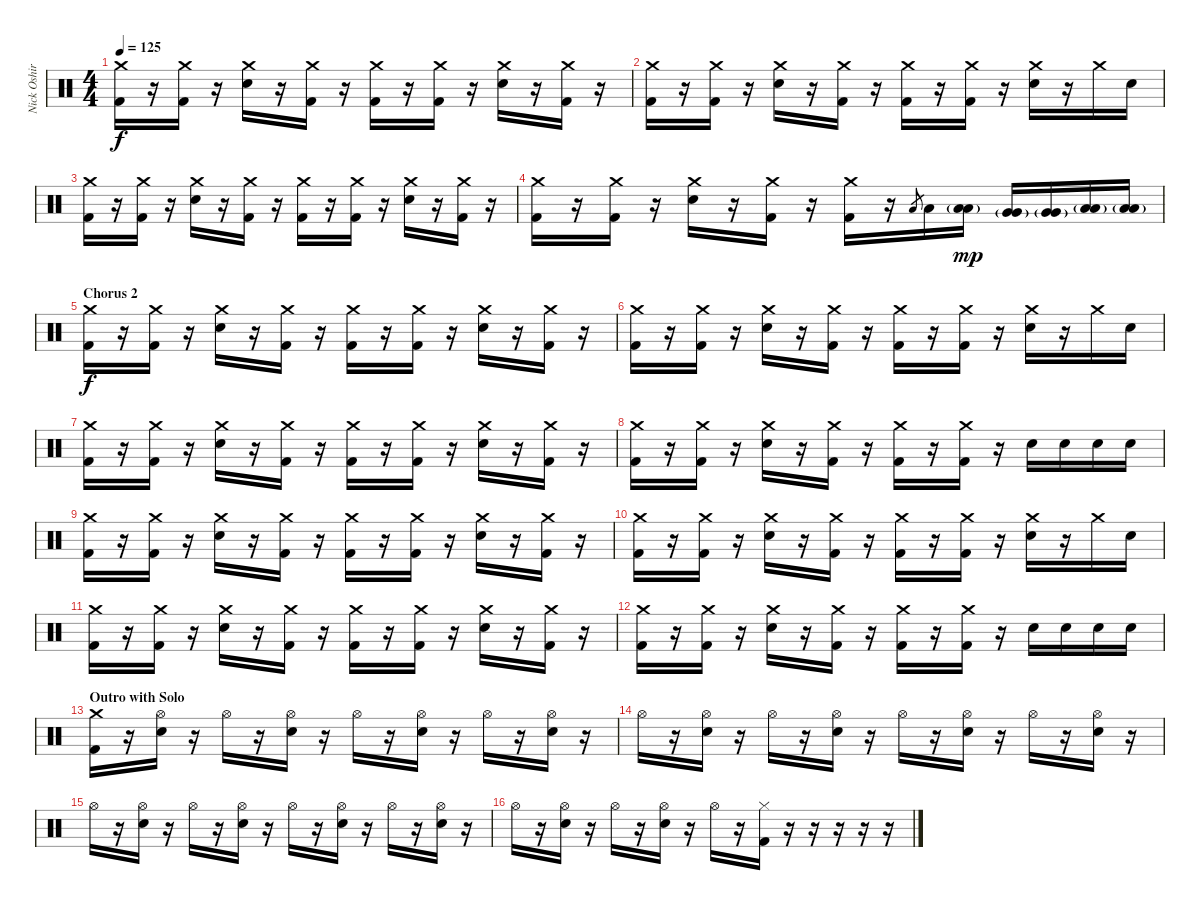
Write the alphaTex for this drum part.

\track ("Nick Oshiro - Drums" "Nick Oshir") {instrument percussion}
\staff {score}
\articulation defaults
\ts (4 4)
\tempo 125
\clef neutral
\ks c
("Crash medium (hit)" "Kick (hit) 2").16{dy f} r.16 ("Crash medium (hit)" "Kick (hit) 2").16 r.16 ("Crash medium (hit)" "Snare (hit) 2").16 r.16 ("Crash medium (hit)" "Kick (hit) 2").16 r.16 ("Crash medium (hit)" "Kick (hit) 2").16 r.16 ("Crash medium (hit)" "Kick (hit) 2").16 r.16 ("Crash medium (hit)" "Snare (hit) 2").16 r.16 ("Crash medium (hit)" "Kick (hit) 2").16 r.16 |
("Crash medium (hit)" "Kick (hit) 2").16 r.16 ("Crash medium (hit)" "Kick (hit) 2").16 r.16 ("Crash medium (hit)" "Snare (hit) 2").16 r.16 ("Crash medium (hit)" "Kick (hit) 2").16 r.16 ("Crash medium (hit)" "Kick (hit) 2").16 r.16 ("Crash medium (hit)" "Kick (hit) 2").16 r.16 ("Crash medium (hit)" "Snare (hit) 2").16 r.16 "Crash medium (hit)".16 "Snare (hit) 2".16 |
("Crash medium (hit)" "Kick (hit) 2").16 r.16 ("Crash medium (hit)" "Kick (hit) 2").16 r.16 ("Crash medium (hit)" "Snare (hit) 2").16 r.16 ("Crash medium (hit)" "Kick (hit) 2").16 r.16 ("Crash medium (hit)" "Kick (hit) 2").16 r.16 ("Crash medium (hit)" "Kick (hit) 2").16 r.16 ("Crash medium (hit)" "Snare (hit) 2").16 r.16 ("Crash medium (hit)" "Kick (hit) 2").16 r.16 |
("Crash medium (hit)" "Kick (hit) 2").16 r.16 ("Crash medium (hit)" "Kick (hit) 2").16 r.16 ("Crash medium (hit)" "Snare (hit) 2").16 r.16 ("Crash medium (hit)" "Kick (hit) 2").16 r.16 ("Crash medium (hit)" "Kick (hit) 2").16 r.16 "Low Tom (hit)".8{gr} "Low Tom (hit)".16 ("Low Tom (hit)"{g} "Low Tom (hit)").16{dy mp} ("Very Low Tom (hit)"{g} "Very Low Tom (hit)").16 ("Very Low Tom (hit)"{g} "Very Low Tom (hit)").16 ("Low Floor Tom (hit)"{g} "Low Floor Tom (hit)").16 ("Low Floor Tom (hit)"{g} "Low Floor Tom (hit)").16 |
\section ("" "Chorus 2")
("Crash medium (hit)" "Kick (hit) 2").16{dy f} r.16 ("Crash medium (hit)" "Kick (hit) 2").16 r.16 ("Crash medium (hit)" "Snare (hit) 2").16 r.16 ("Crash medium (hit)" "Kick (hit) 2").16 r.16 ("Crash medium (hit)" "Kick (hit) 2").16 r.16 ("Crash medium (hit)" "Kick (hit) 2").16 r.16 ("Crash medium (hit)" "Snare (hit) 2").16 r.16 ("Crash medium (hit)" "Kick (hit) 2").16 r.16 |
("Crash medium (hit)" "Kick (hit) 2").16 r.16 ("Crash medium (hit)" "Kick (hit) 2").16 r.16 ("Crash medium (hit)" "Snare (hit) 2").16 r.16 ("Crash medium (hit)" "Kick (hit) 2").16 r.16 ("Crash medium (hit)" "Kick (hit) 2").16 r.16 ("Crash medium (hit)" "Kick (hit) 2").16 r.16 ("Crash medium (hit)" "Snare (hit) 2").16 r.16 "Crash medium (hit)".16 "Snare (hit) 2".16 |
("Crash medium (hit)" "Kick (hit) 2").16 r.16 ("Crash medium (hit)" "Kick (hit) 2").16 r.16 ("Crash medium (hit)" "Snare (hit) 2").16 r.16 ("Crash medium (hit)" "Kick (hit) 2").16 r.16 ("Crash medium (hit)" "Kick (hit) 2").16 r.16 ("Crash medium (hit)" "Kick (hit) 2").16 r.16 ("Crash medium (hit)" "Snare (hit) 2").16 r.16 ("Crash medium (hit)" "Kick (hit) 2").16 r.16 |
("Crash medium (hit)" "Kick (hit) 2").16 r.16 ("Crash medium (hit)" "Kick (hit) 2").16 r.16 ("Crash medium (hit)" "Snare (hit) 2").16 r.16 ("Crash medium (hit)" "Kick (hit) 2").16 r.16 ("Crash medium (hit)" "Kick (hit) 2").16 r.16 ("Crash medium (hit)" "Kick (hit) 2").16 r.16 "Snare (hit) 2".16 "Snare (hit) 2".16 "Snare (hit) 2".16 "Snare (hit) 2".16 |
("Crash medium (hit)" "Kick (hit) 2").16 r.16 ("Crash medium (hit)" "Kick (hit) 2").16 r.16 ("Crash medium (hit)" "Snare (hit) 2").16 r.16 ("Crash medium (hit)" "Kick (hit) 2").16 r.16 ("Crash medium (hit)" "Kick (hit) 2").16 r.16 ("Crash medium (hit)" "Kick (hit) 2").16 r.16 ("Crash medium (hit)" "Snare (hit) 2").16 r.16 ("Crash medium (hit)" "Kick (hit) 2").16 r.16 |
("Crash medium (hit)" "Kick (hit) 2").16 r.16 ("Crash medium (hit)" "Kick (hit) 2").16 r.16 ("Crash medium (hit)" "Snare (hit) 2").16 r.16 ("Crash medium (hit)" "Kick (hit) 2").16 r.16 ("Crash medium (hit)" "Kick (hit) 2").16 r.16 ("Crash medium (hit)" "Kick (hit) 2").16 r.16 ("Crash medium (hit)" "Snare (hit) 2").16 r.16 "Crash medium (hit)".16 "Snare (hit) 2".16 |
("Crash medium (hit)" "Kick (hit) 2").16 r.16 ("Crash medium (hit)" "Kick (hit) 2").16 r.16 ("Crash medium (hit)" "Snare (hit) 2").16 r.16 ("Crash medium (hit)" "Kick (hit) 2").16 r.16 ("Crash medium (hit)" "Kick (hit) 2").16 r.16 ("Crash medium (hit)" "Kick (hit) 2").16 r.16 ("Crash medium (hit)" "Snare (hit) 2").16 r.16 ("Crash medium (hit)" "Kick (hit) 2").16 r.16 |
("Crash medium (hit)" "Kick (hit) 2").16 r.16 ("Crash medium (hit)" "Kick (hit) 2").16 r.16 ("Crash medium (hit)" "Snare (hit) 2").16 r.16 ("Crash medium (hit)" "Kick (hit) 2").16 r.16 ("Crash medium (hit)" "Kick (hit) 2").16 r.16 ("Crash medium (hit)" "Kick (hit) 2").16 r.16 "Snare (hit) 2".16 "Snare (hit) 2".16 "Snare (hit) 2".16 "Snare (hit) 2".16 |
\section ("" "Outro with Solo")
("Crash medium (hit)" "Kick (hit) 2").16 r.16 ("Hi-Hat (open)" "Snare (hit) 2").16 r.16 "Hi-Hat (open)".16 r.16 ("Hi-Hat (open)" "Snare (hit) 2").16 r.16 "Hi-Hat (open)".16 r.16 ("Hi-Hat (open)" "Snare (hit) 2").16 r.16 "Hi-Hat (open)".16 r.16 ("Hi-Hat (open)" "Snare (hit) 2").16 r.16 |
"Hi-Hat (open)".16 r.16 ("Hi-Hat (open)" "Snare (hit) 2").16 r.16 "Hi-Hat (open)".16 r.16 ("Hi-Hat (open)" "Snare (hit) 2").16 r.16 "Hi-Hat (open)".16 r.16 ("Hi-Hat (open)" "Snare (hit) 2").16 r.16 "Hi-Hat (open)".16 r.16 ("Hi-Hat (open)" "Snare (hit) 2").16 r.16 |
"Hi-Hat (open)".16 r.16 ("Hi-Hat (open)" "Snare (hit) 2").16 r.16 "Hi-Hat (open)".16 r.16 ("Hi-Hat (open)" "Snare (hit) 2").16 r.16 "Hi-Hat (open)".16 r.16 ("Hi-Hat (open)" "Snare (hit) 2").16 r.16 "Hi-Hat (open)".16 r.16 ("Hi-Hat (open)" "Snare (hit) 2").16 r.16 |
"Hi-Hat (open)".16 r.16 ("Hi-Hat (open)" "Snare (hit) 2").16 r.16 "Hi-Hat (open)".16 r.16 ("Hi-Hat (open)" "Snare (hit) 2").16 r.16 "Hi-Hat (open)".16 r.16 ("Hi-Hat (closed)" "Kick (hit) 2").16 r.16 r.16 r.16 r.16 r.16
